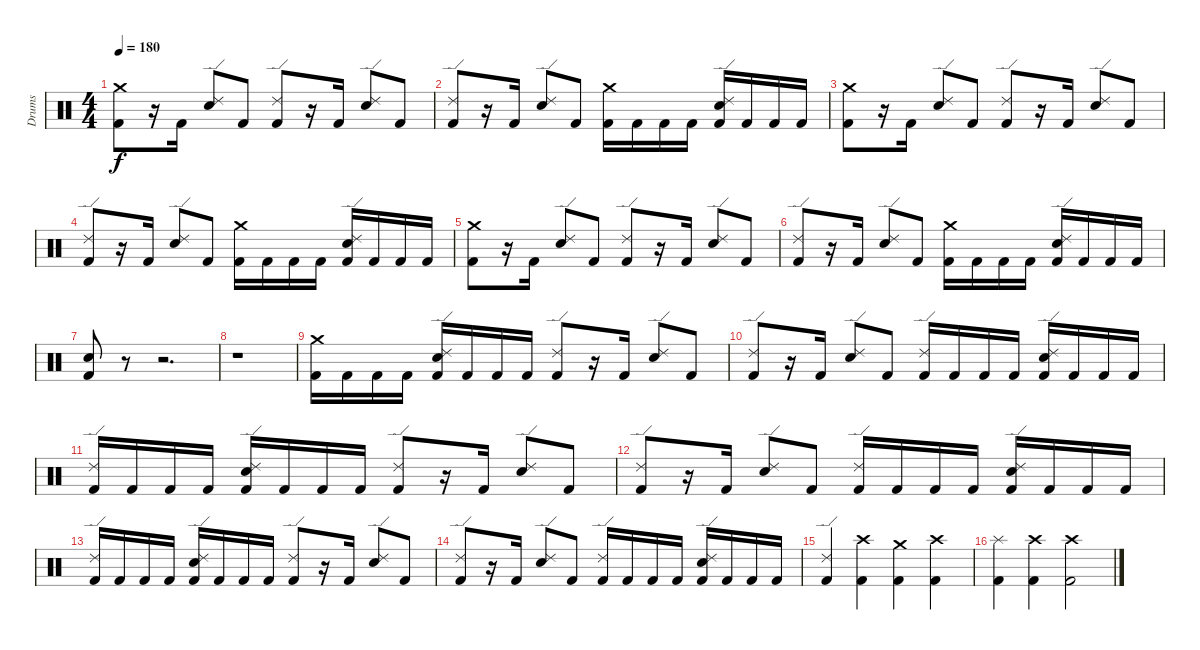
\track ("Drums" "Drums") {instrument percussion}
\staff {score}
\articulation defaults
\ts (4 4)
\tempo 180
\clef neutral
\ks c
("Crash medium (hit)" "Kick (hit) 2").8{dy f} r.16 "Kick (hit) 2".16 ("Ride (edge) 2" "Electric Snare (hit)").8 "Kick (hit) 2".8 ("Ride (edge) 2" "Kick (hit) 2").8 r.16 "Kick (hit) 2".16 ("Ride (edge) 2" "Electric Snare (hit)").8 "Kick (hit) 2".8 |
("Ride (edge) 2" "Kick (hit) 2").8 r.16 "Kick (hit) 2".16 ("Ride (edge) 2" "Electric Snare (hit)").8 "Kick (hit) 2".8 ("Crash medium (hit)" "Kick (hit) 2").16 "Kick (hit) 2".16 "Kick (hit) 2".16 "Kick (hit) 2".16 ("Ride (edge) 2" "Electric Snare (hit)" "Kick (hit) 2").16 "Kick (hit) 2".16 "Kick (hit) 2".16 "Kick (hit) 2".16 |
("Crash medium (hit)" "Kick (hit) 2").8 r.16 "Kick (hit) 2".16 ("Ride (edge) 2" "Electric Snare (hit)").8 "Kick (hit) 2".8 ("Ride (edge) 2" "Kick (hit) 2").8 r.16 "Kick (hit) 2".16 ("Ride (edge) 2" "Electric Snare (hit)").8 "Kick (hit) 2".8 |
("Ride (edge) 2" "Kick (hit) 2").8 r.16 "Kick (hit) 2".16 ("Ride (edge) 2" "Electric Snare (hit)").8 "Kick (hit) 2".8 ("Crash medium (hit)" "Kick (hit) 2").16 "Kick (hit) 2".16 "Kick (hit) 2".16 "Kick (hit) 2".16 ("Ride (edge) 2" "Electric Snare (hit)" "Kick (hit) 2").16 "Kick (hit) 2".16 "Kick (hit) 2".16 "Kick (hit) 2".16 |
("Crash medium (hit)" "Kick (hit) 2").8 r.16 "Kick (hit) 2".16 ("Ride (edge) 2" "Electric Snare (hit)").8 "Kick (hit) 2".8 ("Ride (edge) 2" "Kick (hit) 2").8 r.16 "Kick (hit) 2".16 ("Ride (edge) 2" "Electric Snare (hit)").8 "Kick (hit) 2".8 |
("Ride (edge) 2" "Kick (hit) 2").8 r.16 "Kick (hit) 2".16 ("Ride (edge) 2" "Electric Snare (hit)").8 "Kick (hit) 2".8 ("Crash medium (hit)" "Kick (hit) 2").16 "Kick (hit) 2".16 "Kick (hit) 2".16 "Kick (hit) 2".16 ("Ride (edge) 2" "Electric Snare (hit)" "Kick (hit) 2").16 "Kick (hit) 2".16 "Kick (hit) 2".16 "Kick (hit) 2".16 |
("Electric Snare (hit)" "Kick (hit) 2").8 r.8 r.2{d} |
r.1 |
("Crash medium (hit)" "Kick (hit) 2").16 "Kick (hit) 2".16 "Kick (hit) 2".16 "Kick (hit) 2".16 ("Ride (edge) 2" "Electric Snare (hit)" "Kick (hit) 2").16 "Kick (hit) 2".16 "Kick (hit) 2".16 "Kick (hit) 2".16 ("Ride (edge) 2" "Kick (hit) 2").8 r.16 "Kick (hit) 2".16 ("Ride (edge) 2" "Electric Snare (hit)").8 "Kick (hit) 2".8 |
("Ride (edge) 2" "Kick (hit) 2").8 r.16 "Kick (hit) 2".16 ("Ride (edge) 2" "Electric Snare (hit)").8 "Kick (hit) 2".8 ("Ride (edge) 2" "Kick (hit) 2").16 "Kick (hit) 2".16 "Kick (hit) 2".16 "Kick (hit) 2".16 ("Ride (edge) 2" "Electric Snare (hit)" "Kick (hit) 2").16 "Kick (hit) 2".16 "Kick (hit) 2".16 "Kick (hit) 2".16 |
("Ride (edge) 2" "Kick (hit) 2").16 "Kick (hit) 2".16 "Kick (hit) 2".16 "Kick (hit) 2".16 ("Ride (edge) 2" "Electric Snare (hit)" "Kick (hit) 2").16 "Kick (hit) 2".16 "Kick (hit) 2".16 "Kick (hit) 2".16 ("Ride (edge) 2" "Kick (hit) 2").8 r.16 "Kick (hit) 2".16 ("Ride (edge) 2" "Electric Snare (hit)").8 "Kick (hit) 2".8 |
("Ride (edge) 2" "Kick (hit) 2").8 r.16 "Kick (hit) 2".16 ("Ride (edge) 2" "Electric Snare (hit)").8 "Kick (hit) 2".8 ("Ride (edge) 2" "Kick (hit) 2").16 "Kick (hit) 2".16 "Kick (hit) 2".16 "Kick (hit) 2".16 ("Ride (edge) 2" "Electric Snare (hit)" "Kick (hit) 2").16 "Kick (hit) 2".16 "Kick (hit) 2".16 "Kick (hit) 2".16 |
("Ride (edge) 2" "Kick (hit) 2").16 "Kick (hit) 2".16 "Kick (hit) 2".16 "Kick (hit) 2".16 ("Ride (edge) 2" "Electric Snare (hit)" "Kick (hit) 2").16 "Kick (hit) 2".16 "Kick (hit) 2".16 "Kick (hit) 2".16 ("Ride (edge) 2" "Kick (hit) 2").8 r.16 "Kick (hit) 2".16 ("Ride (edge) 2" "Electric Snare (hit)").8 "Kick (hit) 2".8 |
("Ride (edge) 2" "Kick (hit) 2").8 r.16 "Kick (hit) 2".16 ("Ride (edge) 2" "Electric Snare (hit)").8 "Kick (hit) 2".8 ("Ride (edge) 2" "Kick (hit) 2").16 "Kick (hit) 2".16 "Kick (hit) 2".16 "Kick (hit) 2".16 ("Ride (edge) 2" "Electric Snare (hit)" "Kick (hit) 2").16 "Kick (hit) 2".16 "Kick (hit) 2".16 "Kick (hit) 2".16 |
("Ride (edge) 2" "Kick (hit) 2").4 ("Crash high (hit)" "Kick (hit) 2").4 ("Crash medium (hit)" "Kick (hit) 2").4 ("Crash high (hit)" "Kick (hit) 2").4 |
("Splash (hit)" "Kick (hit) 2").4 ("Crash high (hit)" "Kick (hit) 2").4 ("Crash high (hit)" "Kick (hit) 2").2
